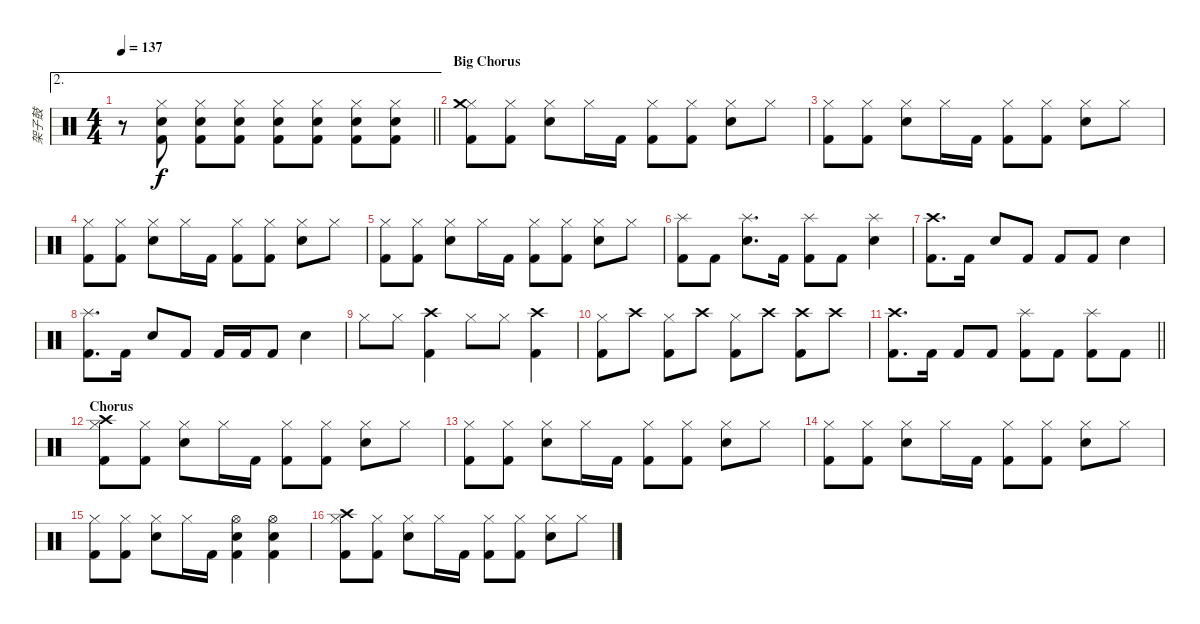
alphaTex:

\track ("架子鼓" "架子鼓") {instrument percussion}
\staff {score}
\articulation defaults
\ae 2
\ts (4 4)
\tempo 137
\clef neutral
\barLineRight lightlight
\ks c
r.8{dy f} ("Hi-Hat (closed)" "Snare (hit) 2" "Kick (hit) 2").8 ("Hi-Hat (closed)" "Snare (hit) 2" "Kick (hit) 2").8 ("Hi-Hat (closed)" "Snare (hit) 2" "Kick (hit) 2").8 ("Hi-Hat (closed)" "Snare (hit) 2" "Kick (hit) 2").8 ("Hi-Hat (closed)" "Snare (hit) 2" "Kick (hit) 2").8 ("Hi-Hat (closed)" "Snare (hit) 2" "Kick (hit) 2").8 ("Hi-Hat (closed)" "Snare (hit) 2" "Kick (hit) 2").8 |
\section ("" "Big Chorus")
("Hi-Hat (closed)" "Crash medium (hit)" "Kick (hit) 2").8 ("Hi-Hat (closed)" "Kick (hit) 2").8 ("Hi-Hat (closed)" "Snare (hit) 2").8 "Hi-Hat (closed)".16 "Kick (hit) 2".16 ("Hi-Hat (closed)" "Kick (hit) 2").8 ("Hi-Hat (closed)" "Kick (hit) 2").8 ("Hi-Hat (closed)" "Snare (hit) 2").8 "Hi-Hat (closed)".8 |
("Hi-Hat (closed)" "Kick (hit) 2").8 ("Hi-Hat (closed)" "Kick (hit) 2").8 ("Hi-Hat (closed)" "Snare (hit) 2").8 "Hi-Hat (closed)".16 "Kick (hit) 2".16 ("Hi-Hat (closed)" "Kick (hit) 2").8 ("Hi-Hat (closed)" "Kick (hit) 2").8 ("Hi-Hat (closed)" "Snare (hit) 2").8 "Hi-Hat (closed)".8 |
("Hi-Hat (closed)" "Kick (hit) 2").8 ("Hi-Hat (closed)" "Kick (hit) 2").8 ("Hi-Hat (closed)" "Snare (hit) 2").8 "Hi-Hat (closed)".16 "Kick (hit) 2".16 ("Hi-Hat (closed)" "Kick (hit) 2").8 ("Hi-Hat (closed)" "Kick (hit) 2").8 ("Hi-Hat (closed)" "Snare (hit) 2").8 "Hi-Hat (closed)".8 |
("Hi-Hat (closed)" "Kick (hit) 2").8 ("Hi-Hat (closed)" "Kick (hit) 2").8 ("Hi-Hat (closed)" "Snare (hit) 2").8 "Hi-Hat (closed)".16 "Kick (hit) 2".16 ("Hi-Hat (closed)" "Kick (hit) 2").8 ("Hi-Hat (closed)" "Kick (hit) 2").8 ("Hi-Hat (closed)" "Snare (hit) 2").8 "Hi-Hat (closed)".8 |
("Splash (hit)" "Kick (hit) 2").8 "Kick (hit) 2".8 ("Splash (hit)" "Snare (hit) 2").8{d} "Kick (hit) 2".16 ("Splash (hit)" "Kick (hit) 2").8 "Kick (hit) 2".8 ("Splash (hit)" "Snare (hit) 2").4 |
("Crash high (hit)" "Kick (hit) 2").8{d} "Kick (hit) 2".16 "Snare (hit) 2".8 "Kick (hit) 2".8 "Kick (hit) 2".8 "Kick (hit) 2".8 "Snare (hit) 2".4 |
("Splash (hit)" "Kick (hit) 2").8{d} "Kick (hit) 2".16 "Snare (hit) 2".8 "Kick (hit) 2".8 "Kick (hit) 2".16 "Kick (hit) 2".16 "Kick (hit) 2".8 "Snare (hit) 2".4 |
"Hi-Hat (closed)".8 "Hi-Hat (closed)".8 ("Crash high (hit)" "Kick (hit) 2").4 "Hi-Hat (closed)".8 "Hi-Hat (closed)".8 ("Crash high (hit)" "Kick (hit) 2").4 |
("Hi-Hat (closed)" "Kick (hit) 2").8 "Crash high (hit)".8 ("Hi-Hat (closed)" "Kick (hit) 2").8 "Crash high (hit)".8 ("Hi-Hat (closed)" "Kick (hit) 2").8 "Crash high (hit)".8 ("Crash high (hit)" "Kick (hit) 2").8 "Crash high (hit)".8 |
\barLineRight lightlight
("Crash high (hit)" "Kick (hit) 2").8{d} "Kick (hit) 2".16 "Kick (hit) 2".8 "Kick (hit) 2".8 ("Splash (hit)" "Kick (hit) 2").8 "Kick (hit) 2".8 ("Splash (hit)" "Kick (hit) 2").8 "Kick (hit) 2".8 |
\section ("" "Chorus")
("Hi-Hat (closed)" "Crash high (hit)" "Kick (hit) 2").8 ("Hi-Hat (closed)" "Kick (hit) 2").8 ("Hi-Hat (closed)" "Snare (hit) 2").8 "Hi-Hat (closed)".16 "Kick (hit) 2".16 ("Hi-Hat (closed)" "Kick (hit) 2").8 ("Hi-Hat (closed)" "Kick (hit) 2").8 ("Hi-Hat (closed)" "Snare (hit) 2").8 "Hi-Hat (closed)".8 |
("Hi-Hat (closed)" "Kick (hit) 2").8 ("Hi-Hat (closed)" "Kick (hit) 2").8 ("Hi-Hat (closed)" "Snare (hit) 2").8 "Hi-Hat (closed)".16 "Kick (hit) 2".16 ("Hi-Hat (closed)" "Kick (hit) 2").8 ("Hi-Hat (closed)" "Kick (hit) 2").8 ("Hi-Hat (closed)" "Snare (hit) 2").8 "Hi-Hat (closed)".8 |
("Hi-Hat (closed)" "Kick (hit) 2").8 ("Hi-Hat (closed)" "Kick (hit) 2").8 ("Hi-Hat (closed)" "Snare (hit) 2").8 "Hi-Hat (closed)".16 "Kick (hit) 2".16 ("Hi-Hat (closed)" "Kick (hit) 2").8 ("Hi-Hat (closed)" "Kick (hit) 2").8 ("Hi-Hat (closed)" "Snare (hit) 2").8 "Hi-Hat (closed)".8 |
("Hi-Hat (closed)" "Kick (hit) 2").8 ("Hi-Hat (closed)" "Kick (hit) 2").8 ("Hi-Hat (closed)" "Snare (hit) 2").8 "Hi-Hat (closed)".16 "Kick (hit) 2".16 ("Hi-Hat (open)" "Snare (hit) 2" "Kick (hit) 2").4 ("Hi-Hat (open)" "Snare (hit) 2" "Kick (hit) 2").4 |
("Hi-Hat (closed)" "Crash high (hit)" "Kick (hit) 2").8 ("Hi-Hat (closed)" "Kick (hit) 2").8 ("Hi-Hat (closed)" "Snare (hit) 2").8 "Hi-Hat (closed)".16 "Kick (hit) 2".16 ("Hi-Hat (closed)" "Kick (hit) 2").8 ("Hi-Hat (closed)" "Kick (hit) 2").8 ("Hi-Hat (closed)" "Snare (hit) 2").8 "Hi-Hat (closed)".8
